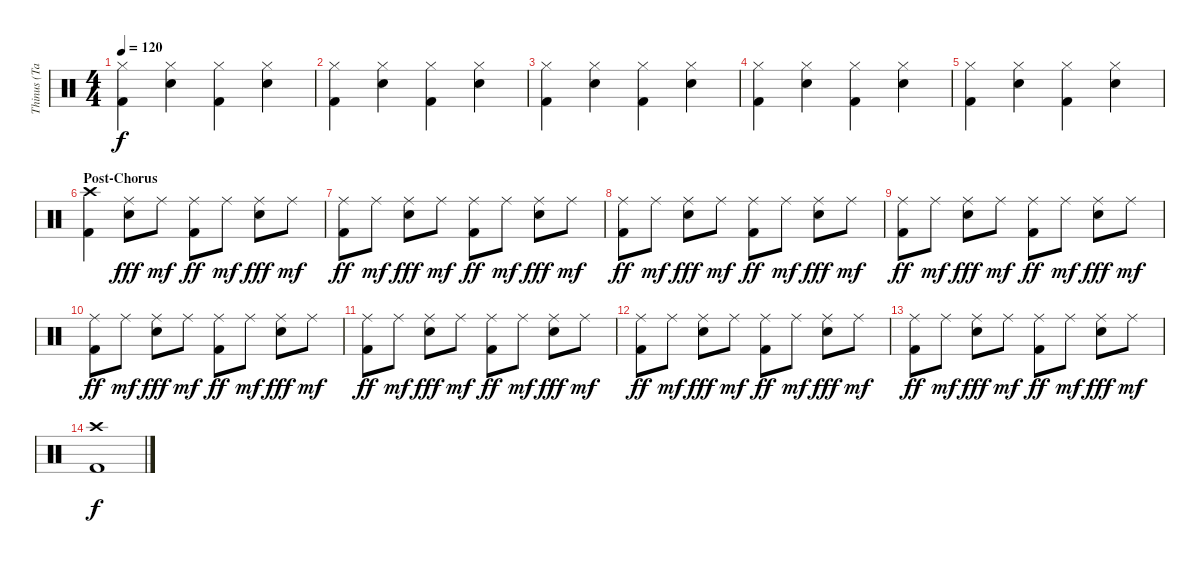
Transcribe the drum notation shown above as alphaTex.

\track ("Thinus (Tain) Odendaal - Drums" "Thinus (Ta") {instrument percussion}
\staff {score}
\articulation defaults
\ts (4 4)
\tempo 120
\clef neutral
\ks c
("Hi-Hat (closed)" "Kick (hit) 2").4{dy f} ("Hi-Hat (closed)" "Snare (hit) 2").4 ("Hi-Hat (closed)" "Kick (hit) 2").4 ("Hi-Hat (closed)" "Snare (hit) 2").4 |
("Hi-Hat (closed)" "Kick (hit) 2").4 ("Hi-Hat (closed)" "Snare (hit) 2").4 ("Hi-Hat (closed)" "Kick (hit) 2").4 ("Hi-Hat (closed)" "Snare (hit) 2").4 |
("Hi-Hat (closed)" "Kick (hit) 2").4 ("Hi-Hat (closed)" "Snare (hit) 2").4 ("Hi-Hat (closed)" "Kick (hit) 2").4 ("Hi-Hat (closed)" "Snare (hit) 2").4 |
("Hi-Hat (closed)" "Kick (hit) 2").4 ("Hi-Hat (closed)" "Snare (hit) 2").4 ("Hi-Hat (closed)" "Kick (hit) 2").4 ("Hi-Hat (closed)" "Snare (hit) 2").4 |
("Hi-Hat (closed)" "Kick (hit) 2").4 ("Hi-Hat (closed)" "Snare (hit) 2").4 ("Hi-Hat (closed)" "Kick (hit) 2").4 ("Hi-Hat (closed)" "Snare (hit) 2").4 |
\section ("" "Post-Chorus")
("Crash high (hit)" "Kick (hit) 2").4 ("Ride (middle)" "Snare (hit) 2").8{dy fff} "Ride (middle)".8{dy mf} ("Ride (middle)" "Kick (hit) 2").8{dy ff} "Ride (middle)".8{dy mf} ("Ride (middle)" "Snare (hit) 2").8{dy fff} "Ride (middle)".8{dy mf} |
("Ride (middle)" "Kick (hit) 2").8{dy ff} "Ride (middle)".8{dy mf} ("Ride (middle)" "Snare (hit) 2").8{dy fff} "Ride (middle)".8{dy mf} ("Ride (middle)" "Kick (hit) 2").8{dy ff} "Ride (middle)".8{dy mf} ("Ride (middle)" "Snare (hit) 2").8{dy fff} "Ride (middle)".8{dy mf} |
("Ride (middle)" "Kick (hit) 2").8{dy ff} "Ride (middle)".8{dy mf} ("Ride (middle)" "Snare (hit) 2").8{dy fff} "Ride (middle)".8{dy mf} ("Ride (middle)" "Kick (hit) 2").8{dy ff} "Ride (middle)".8{dy mf} ("Ride (middle)" "Snare (hit) 2").8{dy fff} "Ride (middle)".8{dy mf} |
("Ride (middle)" "Kick (hit) 2").8{dy ff} "Ride (middle)".8{dy mf} ("Ride (middle)" "Snare (hit) 2").8{dy fff} "Ride (middle)".8{dy mf} ("Ride (middle)" "Kick (hit) 2").8{dy ff} "Ride (middle)".8{dy mf} ("Ride (middle)" "Snare (hit) 2").8{dy fff} "Ride (middle)".8{dy mf} |
("Ride (middle)" "Kick (hit) 2").8{dy ff} "Ride (middle)".8{dy mf} ("Ride (middle)" "Snare (hit) 2").8{dy fff} "Ride (middle)".8{dy mf} ("Ride (middle)" "Kick (hit) 2").8{dy ff} "Ride (middle)".8{dy mf} ("Ride (middle)" "Snare (hit) 2").8{dy fff} "Ride (middle)".8{dy mf} |
("Ride (middle)" "Kick (hit) 2").8{dy ff} "Ride (middle)".8{dy mf} ("Ride (middle)" "Snare (hit) 2").8{dy fff} "Ride (middle)".8{dy mf} ("Ride (middle)" "Kick (hit) 2").8{dy ff} "Ride (middle)".8{dy mf} ("Ride (middle)" "Snare (hit) 2").8{dy fff} "Ride (middle)".8{dy mf} |
("Ride (middle)" "Kick (hit) 2").8{dy ff} "Ride (middle)".8{dy mf} ("Ride (middle)" "Snare (hit) 2").8{dy fff} "Ride (middle)".8{dy mf} ("Ride (middle)" "Kick (hit) 2").8{dy ff} "Ride (middle)".8{dy mf} ("Ride (middle)" "Snare (hit) 2").8{dy fff} "Ride (middle)".8{dy mf} |
("Ride (middle)" "Kick (hit) 2").8{dy ff} "Ride (middle)".8{dy mf} ("Ride (middle)" "Snare (hit) 2").8{dy fff} "Ride (middle)".8{dy mf} ("Ride (middle)" "Kick (hit) 2").8{dy ff} "Ride (middle)".8{dy mf} ("Ride (middle)" "Snare (hit) 2").8{dy fff} "Ride (middle)".8{dy mf} |
("Crash high (hit)" "Kick (hit) 2").1{dy f}
